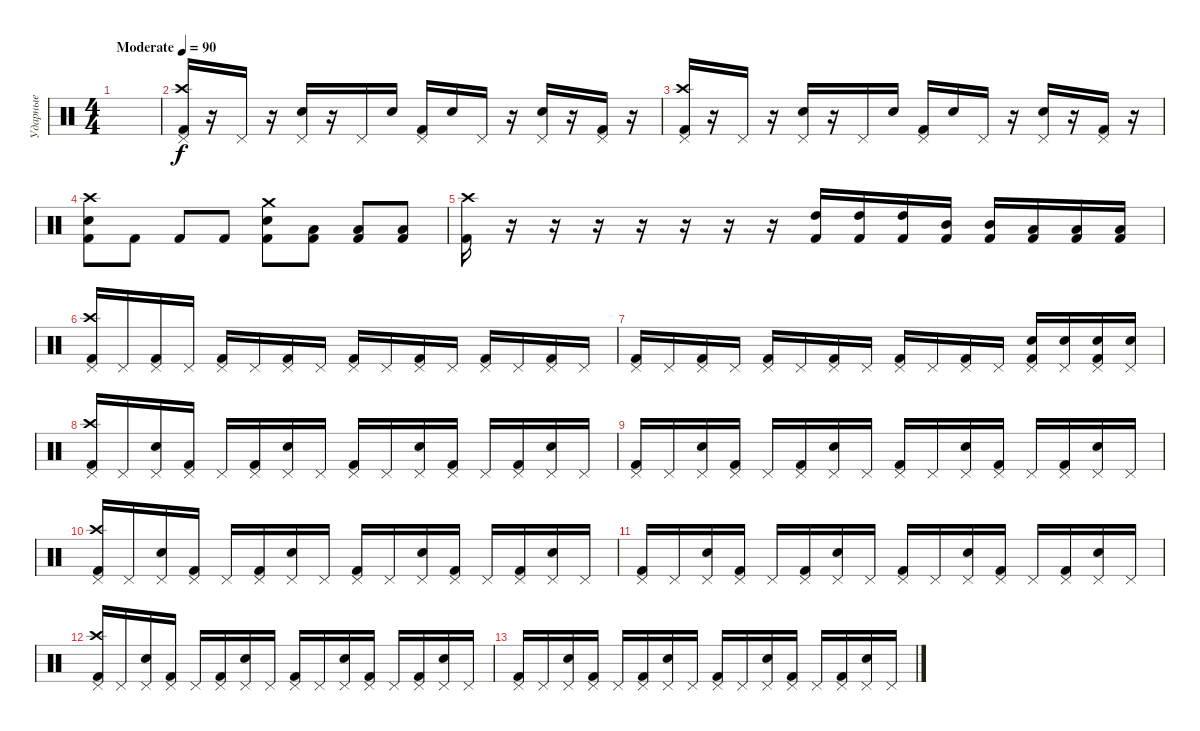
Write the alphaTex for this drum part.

\track ("Ударные" "Ударные") {instrument percussion}
\staff {score}
\articulation defaults
\ts (4 4)
\tempo (90 "Moderate")
\clef neutral
\ks c
|
("Pedal Hi-Hat (hit)" "Crash high (hit)" "Kick (hit) 2").16{volume 14} r.16 "Pedal Hi-Hat (hit)".16 r.16 ("Pedal Hi-Hat (hit)" "Snare (hit) 2").16 r.16 "Pedal Hi-Hat (hit)".16 "Snare (hit) 2".16 ("Pedal Hi-Hat (hit)" "Kick (hit) 2").16 "Snare (hit) 2".16 "Pedal Hi-Hat (hit)".16 r.16 ("Pedal Hi-Hat (hit)" "Snare (hit) 2").16 r.16 ("Pedal Hi-Hat (hit)" "Kick (hit) 2").16 r.16 |
("Pedal Hi-Hat (hit)" "Crash high (hit)" "Kick (hit) 2").16 r.16 "Pedal Hi-Hat (hit)".16 r.16 ("Pedal Hi-Hat (hit)" "Snare (hit) 2").16 r.16 "Pedal Hi-Hat (hit)".16 "Snare (hit) 2".16 ("Pedal Hi-Hat (hit)" "Kick (hit) 2").16 "Snare (hit) 2".16 "Pedal Hi-Hat (hit)".16 r.16 ("Pedal Hi-Hat (hit)" "Snare (hit) 2").16 r.16 ("Pedal Hi-Hat (hit)" "Kick (hit) 2").16 r.16 |
("Kick (hit) 2" "Snare (hit) 2" "Crash high (hit)").8 "Kick (hit) 2".8 "Kick (hit) 2".8 "Kick (hit) 2".8 ("Kick (hit) 2" "Snare (hit) 2" "Crash medium (hit)").8 ("Kick (hit) 2" "Low Floor Tom (hit)").8 ("Kick (hit) 2" "Low Floor Tom (hit)").8 ("Kick (hit) 2" "Low Floor Tom (hit)").8 |
("Kick (hit) 2" "Crash high (hit)").16 r.16 r.16 r.16 r.16 r.16 r.16 r.16 ("High Tom (hit)" "Kick (hit) 2").16 ("High Tom (hit)" "Kick (hit) 2").16 ("High Tom (hit)" "Kick (hit) 2").16 ("Mid Tom (hit)" "Kick (hit) 2").16 ("Mid Tom (hit)" "Kick (hit) 2").16 ("Low Floor Tom (hit)" "Kick (hit) 2").16 ("Low Floor Tom (hit)" "Kick (hit) 2").16 ("Low Floor Tom (hit)" "Kick (hit) 2").16 |
("Pedal Hi-Hat (hit)" "Kick (hit) 2" "Crash high (hit)").16 "Pedal Hi-Hat (hit)".16 ("Pedal Hi-Hat (hit)" "Kick (hit) 2").16 "Pedal Hi-Hat (hit)".16 ("Pedal Hi-Hat (hit)" "Kick (hit) 2").16 "Pedal Hi-Hat (hit)".16 ("Pedal Hi-Hat (hit)" "Kick (hit) 2").16 "Pedal Hi-Hat (hit)".16 ("Pedal Hi-Hat (hit)" "Kick (hit) 2").16 "Pedal Hi-Hat (hit)".16 ("Pedal Hi-Hat (hit)" "Kick (hit) 2").16 "Pedal Hi-Hat (hit)".16 ("Pedal Hi-Hat (hit)" "Kick (hit) 2").16 "Pedal Hi-Hat (hit)".16 ("Pedal Hi-Hat (hit)" "Kick (hit) 2").16 "Pedal Hi-Hat (hit)".16 |
("Pedal Hi-Hat (hit)" "Kick (hit) 2").16 "Pedal Hi-Hat (hit)".16 ("Pedal Hi-Hat (hit)" "Kick (hit) 2").16 "Pedal Hi-Hat (hit)".16 ("Pedal Hi-Hat (hit)" "Kick (hit) 2").16 "Pedal Hi-Hat (hit)".16 ("Pedal Hi-Hat (hit)" "Kick (hit) 2").16 "Pedal Hi-Hat (hit)".16 ("Pedal Hi-Hat (hit)" "Kick (hit) 2").16 "Pedal Hi-Hat (hit)".16 ("Pedal Hi-Hat (hit)" "Kick (hit) 2").16 "Pedal Hi-Hat (hit)".16 ("Pedal Hi-Hat (hit)" "Kick (hit) 2" "Snare (hit) 2").16 ("Pedal Hi-Hat (hit)" "Snare (hit) 2").16 ("Pedal Hi-Hat (hit)" "Kick (hit) 2" "Snare (hit) 2").16 ("Pedal Hi-Hat (hit)" "Snare (hit) 2").16 |
("Pedal Hi-Hat (hit)" "Kick (hit) 2" "Crash high (hit)").16 "Pedal Hi-Hat (hit)".16 ("Pedal Hi-Hat (hit)" "Snare (hit) 2").16 ("Pedal Hi-Hat (hit)" "Kick (hit) 2").16 "Pedal Hi-Hat (hit)".16 ("Pedal Hi-Hat (hit)" "Kick (hit) 2").16 ("Pedal Hi-Hat (hit)" "Snare (hit) 2").16 "Pedal Hi-Hat (hit)".16 ("Pedal Hi-Hat (hit)" "Kick (hit) 2").16 "Pedal Hi-Hat (hit)".16 ("Pedal Hi-Hat (hit)" "Snare (hit) 2").16 ("Pedal Hi-Hat (hit)" "Kick (hit) 2").16 "Pedal Hi-Hat (hit)".16 ("Pedal Hi-Hat (hit)" "Kick (hit) 2").16 ("Pedal Hi-Hat (hit)" "Snare (hit) 2").16 "Pedal Hi-Hat (hit)".16 |
("Pedal Hi-Hat (hit)" "Kick (hit) 2").16 "Pedal Hi-Hat (hit)".16 ("Pedal Hi-Hat (hit)" "Snare (hit) 2").16 ("Pedal Hi-Hat (hit)" "Kick (hit) 2").16 "Pedal Hi-Hat (hit)".16 ("Pedal Hi-Hat (hit)" "Kick (hit) 2").16 ("Pedal Hi-Hat (hit)" "Snare (hit) 2").16 "Pedal Hi-Hat (hit)".16 ("Pedal Hi-Hat (hit)" "Kick (hit) 2").16 "Pedal Hi-Hat (hit)".16 ("Pedal Hi-Hat (hit)" "Snare (hit) 2").16 ("Pedal Hi-Hat (hit)" "Kick (hit) 2").16 "Pedal Hi-Hat (hit)".16 ("Pedal Hi-Hat (hit)" "Kick (hit) 2").16 ("Pedal Hi-Hat (hit)" "Snare (hit) 2").16 "Pedal Hi-Hat (hit)".16 |
("Pedal Hi-Hat (hit)" "Kick (hit) 2" "Crash high (hit)").16 "Pedal Hi-Hat (hit)".16 ("Pedal Hi-Hat (hit)" "Snare (hit) 2").16 ("Pedal Hi-Hat (hit)" "Kick (hit) 2").16 "Pedal Hi-Hat (hit)".16 ("Pedal Hi-Hat (hit)" "Kick (hit) 2").16 ("Pedal Hi-Hat (hit)" "Snare (hit) 2").16 "Pedal Hi-Hat (hit)".16 ("Pedal Hi-Hat (hit)" "Kick (hit) 2").16 "Pedal Hi-Hat (hit)".16 ("Pedal Hi-Hat (hit)" "Snare (hit) 2").16 ("Pedal Hi-Hat (hit)" "Kick (hit) 2").16 "Pedal Hi-Hat (hit)".16 ("Pedal Hi-Hat (hit)" "Kick (hit) 2").16 ("Pedal Hi-Hat (hit)" "Snare (hit) 2").16 "Pedal Hi-Hat (hit)".16 |
("Pedal Hi-Hat (hit)" "Kick (hit) 2").16 "Pedal Hi-Hat (hit)".16 ("Pedal Hi-Hat (hit)" "Snare (hit) 2").16 ("Pedal Hi-Hat (hit)" "Kick (hit) 2").16 "Pedal Hi-Hat (hit)".16 ("Pedal Hi-Hat (hit)" "Kick (hit) 2").16 ("Pedal Hi-Hat (hit)" "Snare (hit) 2").16 "Pedal Hi-Hat (hit)".16 ("Pedal Hi-Hat (hit)" "Kick (hit) 2").16 "Pedal Hi-Hat (hit)".16 ("Pedal Hi-Hat (hit)" "Snare (hit) 2").16 ("Pedal Hi-Hat (hit)" "Kick (hit) 2").16 "Pedal Hi-Hat (hit)".16 ("Pedal Hi-Hat (hit)" "Kick (hit) 2").16 ("Pedal Hi-Hat (hit)" "Snare (hit) 2").16 "Pedal Hi-Hat (hit)".16 |
("Pedal Hi-Hat (hit)" "Kick (hit) 2" "Crash high (hit)").16 "Pedal Hi-Hat (hit)".16 ("Pedal Hi-Hat (hit)" "Snare (hit) 2").16 ("Pedal Hi-Hat (hit)" "Kick (hit) 2").16 "Pedal Hi-Hat (hit)".16 ("Pedal Hi-Hat (hit)" "Kick (hit) 2").16 ("Pedal Hi-Hat (hit)" "Snare (hit) 2").16 "Pedal Hi-Hat (hit)".16 ("Pedal Hi-Hat (hit)" "Kick (hit) 2").16 "Pedal Hi-Hat (hit)".16 ("Pedal Hi-Hat (hit)" "Snare (hit) 2").16 ("Pedal Hi-Hat (hit)" "Kick (hit) 2").16 "Pedal Hi-Hat (hit)".16 ("Pedal Hi-Hat (hit)" "Kick (hit) 2").16 ("Pedal Hi-Hat (hit)" "Snare (hit) 2").16 "Pedal Hi-Hat (hit)".16 |
("Pedal Hi-Hat (hit)" "Kick (hit) 2").16 "Pedal Hi-Hat (hit)".16 ("Pedal Hi-Hat (hit)" "Snare (hit) 2").16 ("Pedal Hi-Hat (hit)" "Kick (hit) 2").16 "Pedal Hi-Hat (hit)".16 ("Pedal Hi-Hat (hit)" "Kick (hit) 2").16 ("Pedal Hi-Hat (hit)" "Snare (hit) 2").16 "Pedal Hi-Hat (hit)".16 ("Pedal Hi-Hat (hit)" "Kick (hit) 2").16 "Pedal Hi-Hat (hit)".16 ("Pedal Hi-Hat (hit)" "Snare (hit) 2").16 ("Pedal Hi-Hat (hit)" "Kick (hit) 2").16 "Pedal Hi-Hat (hit)".16 ("Pedal Hi-Hat (hit)" "Kick (hit) 2").16 ("Pedal Hi-Hat (hit)" "Snare (hit) 2").16 "Pedal Hi-Hat (hit)".16
